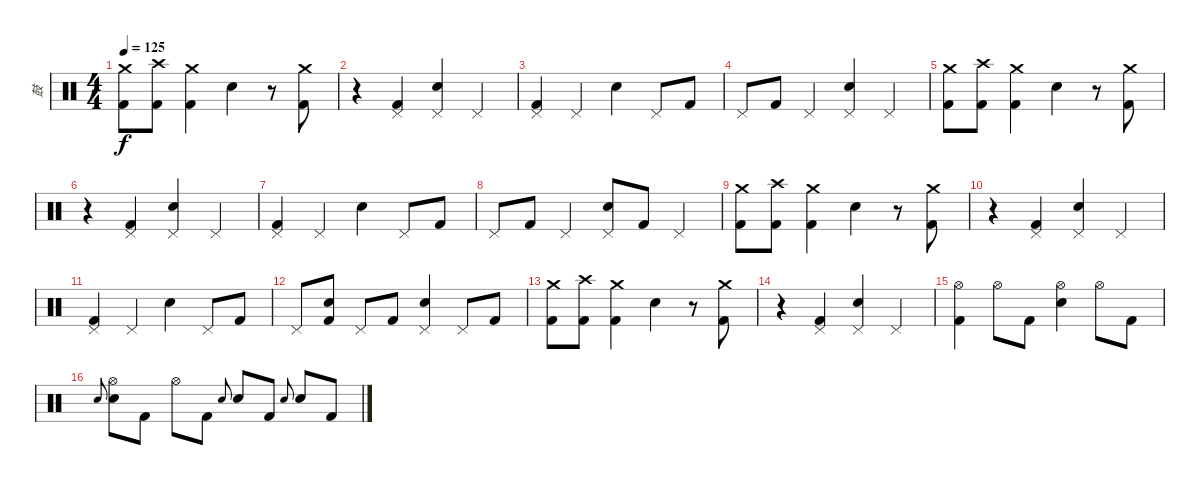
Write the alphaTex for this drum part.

\track ("鼓" "鼓") {instrument percussion}
\staff {score}
\articulation defaults
\ts (4 4)
\tempo 125
\clef neutral
\ks c
("Crash medium (hit)" "Kick (hit) 2").8{dy f} ("Crash high (hit)" "Kick (hit) 2").8 ("Crash medium (hit)" "Kick (hit) 2").4 "Snare (hit) 2".4 r.8 ("Crash medium (hit)" "Kick (hit) 2").8 |
r.4 ("Pedal Hi-Hat (hit)" "Kick (hit) 2").4 ("Pedal Hi-Hat (hit)" "Snare (hit) 2").4 "Pedal Hi-Hat (hit)".4 |
("Pedal Hi-Hat (hit)" "Kick (hit) 2").4 "Pedal Hi-Hat (hit)".4 "Snare (hit) 2".4 "Pedal Hi-Hat (hit)".8 "Kick (hit) 2".8 |
"Pedal Hi-Hat (hit)".8 "Kick (hit) 2".8 "Pedal Hi-Hat (hit)".4 ("Pedal Hi-Hat (hit)" "Snare (hit) 2").4 "Pedal Hi-Hat (hit)".4 |
("Crash medium (hit)" "Kick (hit) 2").8 ("Crash high (hit)" "Kick (hit) 2").8 ("Crash medium (hit)" "Kick (hit) 2").4 "Snare (hit) 2".4 r.8 ("Crash medium (hit)" "Kick (hit) 2").8 |
r.4 ("Pedal Hi-Hat (hit)" "Kick (hit) 2").4 ("Pedal Hi-Hat (hit)" "Snare (hit) 2").4 "Pedal Hi-Hat (hit)".4 |
("Pedal Hi-Hat (hit)" "Kick (hit) 2").4 "Pedal Hi-Hat (hit)".4 "Snare (hit) 2".4 "Pedal Hi-Hat (hit)".8 "Kick (hit) 2".8 |
"Pedal Hi-Hat (hit)".8 "Kick (hit) 2".8 "Pedal Hi-Hat (hit)".4 ("Pedal Hi-Hat (hit)" "Snare (hit) 2").8 "Kick (hit) 2".8 "Pedal Hi-Hat (hit)".4 |
("Crash medium (hit)" "Kick (hit) 2").8 ("Crash high (hit)" "Kick (hit) 2").8 ("Crash medium (hit)" "Kick (hit) 2").4 "Snare (hit) 2".4 r.8 ("Crash medium (hit)" "Kick (hit) 2").8 |
r.4 ("Pedal Hi-Hat (hit)" "Kick (hit) 2").4 ("Pedal Hi-Hat (hit)" "Snare (hit) 2").4 "Pedal Hi-Hat (hit)".4 |
("Pedal Hi-Hat (hit)" "Kick (hit) 2").4 "Pedal Hi-Hat (hit)".4 "Snare (hit) 2".4 "Pedal Hi-Hat (hit)".8 "Kick (hit) 2".8 |
"Pedal Hi-Hat (hit)".8 ("Snare (hit) 2" "Kick (hit) 2").8 "Pedal Hi-Hat (hit)".8 "Kick (hit) 2".8 ("Pedal Hi-Hat (hit)" "Snare (hit) 2").4 "Pedal Hi-Hat (hit)".8 "Kick (hit) 2".8 |
("Crash medium (hit)" "Kick (hit) 2").8 ("Crash high (hit)" "Kick (hit) 2").8 ("Crash medium (hit)" "Kick (hit) 2").4 "Snare (hit) 2".4 r.8 ("Crash medium (hit)" "Kick (hit) 2").8 |
r.4 ("Pedal Hi-Hat (hit)" "Kick (hit) 2").4 ("Pedal Hi-Hat (hit)" "Snare (hit) 2").4 "Pedal Hi-Hat (hit)".4 |
("Hi-Hat (open)" "Kick (hit) 2").4 "Hi-Hat (open)".8 "Kick (hit) 2".8 ("Snare (hit) 2" "Hi-Hat (open)").4 "Hi-Hat (open)".8 "Kick (hit) 2".8 |
"Snare (hit) 2".8{gr onbeat} ("Snare (hit) 2" "Hi-Hat (open)").8 "Kick (hit) 2".8 "Hi-Hat (open)".8 "Kick (hit) 2".8 "Snare (hit) 2".8{gr onbeat} "Snare (hit) 2".8 "Kick (hit) 2".8 "Snare (hit) 2".8{gr onbeat} "Snare (hit) 2".8 "Kick (hit) 2".8
